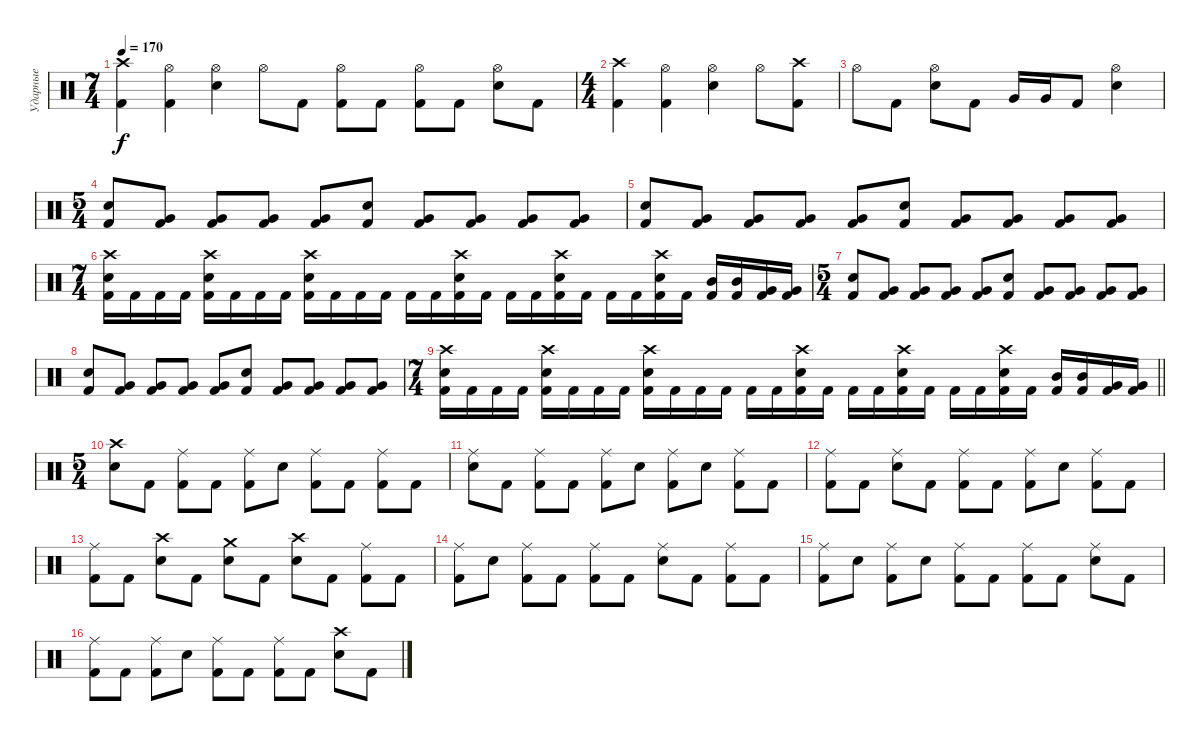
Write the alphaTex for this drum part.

\track ("Ударные" "Ударные") {instrument percussion}
\staff {score}
\articulation defaults
\ts (7 4)
\tempo 170
\clef neutral
\ks c
("Crash high (hit)" "Kick (hit) 2").4{dy f} ("Hi-Hat (open)" "Kick (hit) 2").4 ("Hi-Hat (open)" "Electric Snare (hit)").4 "Hi-Hat (open)".8 "Kick (hit) 2".8 ("Hi-Hat (open)" "Kick (hit) 2").8 "Kick (hit) 2".8 ("Hi-Hat (open)" "Kick (hit) 2").8 "Kick (hit) 2".8 ("Hi-Hat (open)" "Electric Snare (hit)").8 "Kick (hit) 2".8 |
\ts (4 4)
("Crash high (hit)" "Kick (hit) 2").4 ("Hi-Hat (open)" "Kick (hit) 2").4 ("Hi-Hat (open)" "Electric Snare (hit)").4 "Hi-Hat (open)".8 ("Crash high (hit)" "Kick (hit) 2").8 |
"Hi-Hat (open)".8 "Kick (hit) 2".8 ("Hi-Hat (open)" "Electric Snare (hit)").8 "Kick (hit) 2".8 "Very Low Tom (hit)".16 "Very Low Tom (hit)".16 "Kick (hit) 2".8 ("Hi-Hat (open)" "Electric Snare (hit)").4 |
\ts (5 4)
("Electric Snare (hit)" "Kick (hit) 2").8 ("Very Low Tom (hit)" "Kick (hit) 2").8 ("Very Low Tom (hit)" "Kick (hit) 2").8 ("Very Low Tom (hit)" "Kick (hit) 2").8 ("Very Low Tom (hit)" "Kick (hit) 2").8 ("Electric Snare (hit)" "Kick (hit) 2").8 ("Very Low Tom (hit)" "Kick (hit) 2").8 ("Very Low Tom (hit)" "Kick (hit) 2").8 ("Very Low Tom (hit)" "Kick (hit) 2").8 ("Very Low Tom (hit)" "Kick (hit) 2").8 |
("Electric Snare (hit)" "Kick (hit) 2").8 ("Very Low Tom (hit)" "Kick (hit) 2").8 ("Very Low Tom (hit)" "Kick (hit) 2").8 ("Very Low Tom (hit)" "Kick (hit) 2").8 ("Very Low Tom (hit)" "Kick (hit) 2").8 ("Electric Snare (hit)" "Kick (hit) 2").8 ("Very Low Tom (hit)" "Kick (hit) 2").8 ("Very Low Tom (hit)" "Kick (hit) 2").8 ("Very Low Tom (hit)" "Kick (hit) 2").8 ("Very Low Tom (hit)" "Kick (hit) 2").8 |
\ts (7 4)
("Crash high (hit)" "Electric Snare (hit)" "Kick (hit) 2").16 "Kick (hit) 2".16 "Kick (hit) 2".16 "Kick (hit) 2".16 ("Crash high (hit)" "Electric Snare (hit)" "Kick (hit) 2").16 "Kick (hit) 2".16 "Kick (hit) 2".16 "Kick (hit) 2".16 ("Crash high (hit)" "Electric Snare (hit)" "Kick (hit) 2").16 "Kick (hit) 2".16 "Kick (hit) 2".16 "Kick (hit) 2".16 "Kick (hit) 2".16 "Kick (hit) 2".16 ("Crash high (hit)" "Electric Snare (hit)" "Kick (hit) 2").16 "Kick (hit) 2".16 "Kick (hit) 2".16 "Kick (hit) 2".16 ("Crash high (hit)" "Electric Snare (hit)" "Kick (hit) 2").16 "Kick (hit) 2".16 "Kick (hit) 2".16 "Kick (hit) 2".16 ("Crash high (hit)" "Electric Snare (hit)" "Kick (hit) 2").16 "Kick (hit) 2".16 ("Mid Tom (hit)" "Kick (hit) 2").16 ("Mid Tom (hit)" "Kick (hit) 2").16 ("Very Low Tom (hit)" "Kick (hit) 2").16 ("Very Low Tom (hit)" "Kick (hit) 2").16 |
\ts (5 4)
("Electric Snare (hit)" "Kick (hit) 2").8 ("Very Low Tom (hit)" "Kick (hit) 2").8 ("Very Low Tom (hit)" "Kick (hit) 2").8 ("Very Low Tom (hit)" "Kick (hit) 2").8 ("Very Low Tom (hit)" "Kick (hit) 2").8 ("Electric Snare (hit)" "Kick (hit) 2").8 ("Very Low Tom (hit)" "Kick (hit) 2").8 ("Very Low Tom (hit)" "Kick (hit) 2").8 ("Very Low Tom (hit)" "Kick (hit) 2").8 ("Very Low Tom (hit)" "Kick (hit) 2").8 |
("Electric Snare (hit)" "Kick (hit) 2").8 ("Very Low Tom (hit)" "Kick (hit) 2").8 ("Very Low Tom (hit)" "Kick (hit) 2").8 ("Very Low Tom (hit)" "Kick (hit) 2").8 ("Very Low Tom (hit)" "Kick (hit) 2").8 ("Electric Snare (hit)" "Kick (hit) 2").8 ("Very Low Tom (hit)" "Kick (hit) 2").8 ("Very Low Tom (hit)" "Kick (hit) 2").8 ("Very Low Tom (hit)" "Kick (hit) 2").8 ("Very Low Tom (hit)" "Kick (hit) 2").8 |
\ts (7 4)
\barLineRight lightlight
("Crash high (hit)" "Electric Snare (hit)" "Kick (hit) 2").16 "Kick (hit) 2".16 "Kick (hit) 2".16 "Kick (hit) 2".16 ("Crash high (hit)" "Electric Snare (hit)" "Kick (hit) 2").16 "Kick (hit) 2".16 "Kick (hit) 2".16 "Kick (hit) 2".16 ("Crash high (hit)" "Electric Snare (hit)" "Kick (hit) 2").16 "Kick (hit) 2".16 "Kick (hit) 2".16 "Kick (hit) 2".16 "Kick (hit) 2".16 "Kick (hit) 2".16 ("Crash high (hit)" "Electric Snare (hit)" "Kick (hit) 2").16 "Kick (hit) 2".16 "Kick (hit) 2".16 "Kick (hit) 2".16 ("Crash high (hit)" "Electric Snare (hit)" "Kick (hit) 2").16 "Kick (hit) 2".16 "Kick (hit) 2".16 "Kick (hit) 2".16 ("Crash high (hit)" "Electric Snare (hit)" "Kick (hit) 2").16 "Kick (hit) 2".16 ("Mid Tom (hit)" "Kick (hit) 2").16 ("Mid Tom (hit)" "Kick (hit) 2").16 ("Very Low Tom (hit)" "Kick (hit) 2").16 ("Very Low Tom (hit)" "Kick (hit) 2").16 |
\ts (5 4)
("Crash high (hit)" "Electric Snare (hit)").8 "Kick (hit) 2".8 ("Ride (middle)" "Kick (hit) 2").8 "Kick (hit) 2".8 ("Ride (middle)" "Kick (hit) 2").8 "Electric Snare (hit)".8 ("Ride (middle)" "Kick (hit) 2").8 "Kick (hit) 2".8 ("Ride (middle)" "Kick (hit) 2").8 "Kick (hit) 2".8 |
("Ride (middle)" "Electric Snare (hit)").8 "Kick (hit) 2".8 ("Ride (middle)" "Kick (hit) 2").8 "Kick (hit) 2".8 ("Ride (middle)" "Kick (hit) 2").8 "Electric Snare (hit)".8 ("Ride (middle)" "Kick (hit) 2").8 "Electric Snare (hit)".8 ("Ride (middle)" "Kick (hit) 2").8 "Kick (hit) 2".8 |
("Ride (middle)" "Kick (hit) 2").8 "Kick (hit) 2".8 ("Ride (middle)" "Electric Snare (hit)").8 "Kick (hit) 2".8 ("Ride (middle)" "Kick (hit) 2").8 "Kick (hit) 2".8 ("Ride (middle)" "Kick (hit) 2").8 "Electric Snare (hit)".8 ("Ride (middle)" "Kick (hit) 2").8 "Kick (hit) 2".8 |
("Ride (middle)" "Kick (hit) 2").8 "Kick (hit) 2".8 ("Crash high (hit)" "Electric Snare (hit)").8 "Kick (hit) 2".8 ("Crash medium (hit)" "Electric Snare (hit)").8 "Kick (hit) 2".8 ("Crash high (hit)" "Electric Snare (hit)").8 "Kick (hit) 2".8 ("Ride (middle)" "Kick (hit) 2").8 "Kick (hit) 2".8 |
("Ride (middle)" "Kick (hit) 2").8 "Electric Snare (hit)".8 ("Ride (middle)" "Kick (hit) 2").8 "Kick (hit) 2".8 ("Ride (middle)" "Kick (hit) 2").8 "Kick (hit) 2".8 ("Ride (middle)" "Electric Snare (hit)").8 "Kick (hit) 2".8 ("Ride (middle)" "Kick (hit) 2").8 "Kick (hit) 2".8 |
("Ride (middle)" "Kick (hit) 2").8 "Electric Snare (hit)".8 ("Ride (middle)" "Kick (hit) 2").8 "Electric Snare (hit)".8 ("Ride (middle)" "Kick (hit) 2").8 "Kick (hit) 2".8 ("Ride (middle)" "Kick (hit) 2").8 "Kick (hit) 2".8 ("Ride (middle)" "Electric Snare (hit)").8 "Kick (hit) 2".8 |
("Ride (middle)" "Kick (hit) 2").8 "Kick (hit) 2".8 ("Ride (middle)" "Kick (hit) 2").8 "Electric Snare (hit)".8 ("Ride (middle)" "Kick (hit) 2").8 "Kick (hit) 2".8 ("Ride (middle)" "Kick (hit) 2").8 "Kick (hit) 2".8 ("Crash high (hit)" "Electric Snare (hit)").8 "Kick (hit) 2".8
